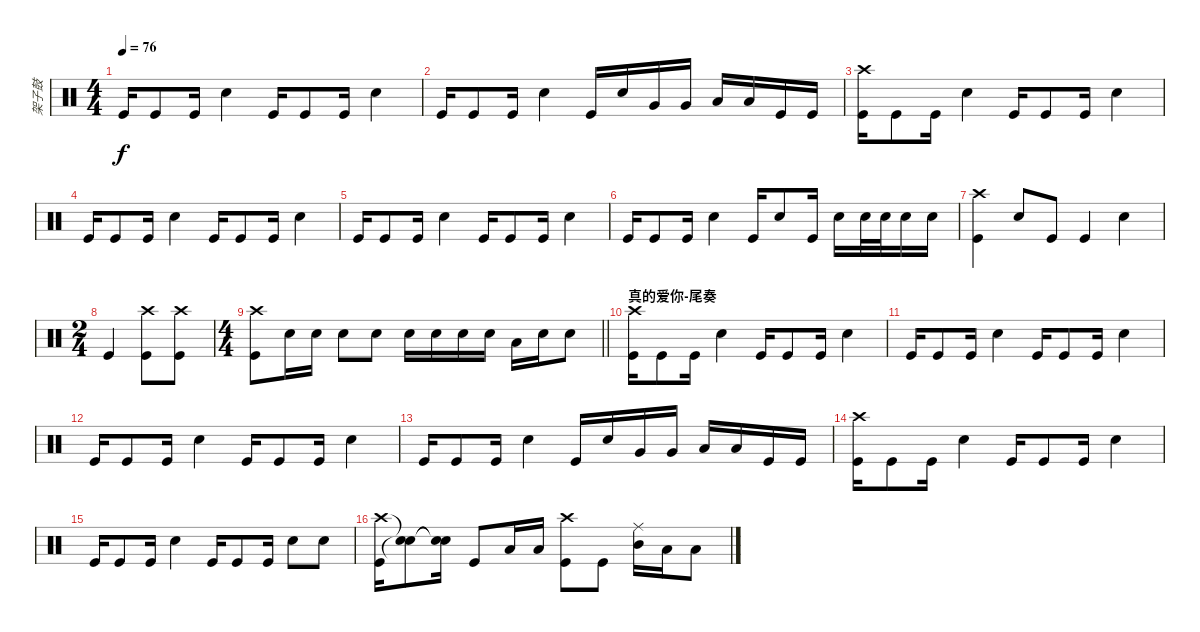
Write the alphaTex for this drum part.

\track ("架子鼓" "架子鼓") {instrument percussion}
\staff {score}
\articulation defaults
\ts (4 4)
\tempo 76
\clef neutral
\ks c "Kick (hit)".16{dy f} "Kick (hit)".8 "Kick (hit)".16 "Electric Snare (hit)".4 "Kick (hit)".16 "Kick (hit)".8 "Kick (hit)".16 "Electric Snare (hit)".4
|
"Kick (hit)".16 "Kick (hit)".8 "Kick (hit)".16 "Electric Snare (hit)".4 "Kick (hit)".16 "Electric Snare (hit)".16 "Very Low Tom (hit)".16 "Very Low Tom (hit)".16 "Low Floor Tom (hit)".16 "Low Floor Tom (hit)".16 "Kick (hit)".16 "Kick (hit)".16 |
("Crash high (hit)" "Kick (hit)").16 "Kick (hit)".8 "Kick (hit)".16 "Electric Snare (hit)".4 "Kick (hit)".16 "Kick (hit)".8 "Kick (hit)".16 "Electric Snare (hit)".4 |
"Kick (hit)".16 "Kick (hit)".8 "Kick (hit)".16 "Electric Snare (hit)".4 "Kick (hit)".16 "Kick (hit)".8 "Kick (hit)".16 "Electric Snare (hit)".4 |
"Kick (hit)".16 "Kick (hit)".8 "Kick (hit)".16 "Electric Snare (hit)".4 "Kick (hit)".16 "Kick (hit)".8 "Kick (hit)".16 "Electric Snare (hit)".4 |
"Kick (hit)".16 "Kick (hit)".8 "Kick (hit)".16 "Electric Snare (hit)".4 "Kick (hit)".16 "Electric Snare (hit)".8 "Kick (hit)".16 "Electric Snare (hit)".16 "Electric Snare (hit)".32 "Electric Snare (hit)".32 "Electric Snare (hit)".16 "Electric Snare (hit)".16 |
("Crash high (hit)" "Kick (hit)").4 "Electric Snare (hit)".8 "Kick (hit)".8 "Kick (hit)".4 "Electric Snare (hit)".4 |
\ts (2 4)
"Kick (hit)".4 ("Crash high (hit)" "Kick (hit)").8 ("Crash high (hit)" "Kick (hit)").8 |
\ts (4 4)
\barLineRight lightlight
("Crash high (hit)" "Kick (hit)").8 "Electric Snare (hit)".16 "Electric Snare (hit)".16 "Electric Snare (hit)".8 "Electric Snare (hit)".8 "Electric Snare (hit)".16 "Electric Snare (hit)".16 "Electric Snare (hit)".16 "Electric Snare (hit)".16 "Low Floor Tom (hit)".16 "Electric Snare (hit)".16 "Electric Snare (hit)".8 |
\section ("" "真的爱你-尾奏")
("Crash high (hit)" "Kick (hit)").16 "Kick (hit)".8 "Kick (hit)".16 "Electric Snare (hit)".4 "Kick (hit)".16 "Kick (hit)".8 "Kick (hit)".16 "Electric Snare (hit)".4 |
"Kick (hit)".16 "Kick (hit)".8 "Kick (hit)".16 "Electric Snare (hit)".4 "Kick (hit)".16 "Kick (hit)".8 "Kick (hit)".16 "Electric Snare (hit)".4 |
"Kick (hit)".16 "Kick (hit)".8 "Kick (hit)".16 "Electric Snare (hit)".4 "Kick (hit)".16 "Kick (hit)".8 "Kick (hit)".16 "Electric Snare (hit)".4 |
"Kick (hit)".16 "Kick (hit)".8 "Kick (hit)".16 "Electric Snare (hit)".4 "Kick (hit)".16 "Electric Snare (hit)".16 "Very Low Tom (hit)".16 "Very Low Tom (hit)".16 "Low Floor Tom (hit)".16 "Low Floor Tom (hit)".16 "Kick (hit)".16 "Kick (hit)".16 |
("Crash high (hit)" "Kick (hit)").16 "Kick (hit)".8 "Kick (hit)".16 "Electric Snare (hit)".4 "Kick (hit)".16 "Kick (hit)".8 "Kick (hit)".16 "Electric Snare (hit)".4 |
"Kick (hit)".16 "Kick (hit)".8 "Kick (hit)".16 "Electric Snare (hit)".4 "Kick (hit)".16 "Kick (hit)".8 "Kick (hit)".16 "Electric Snare (hit)".8 "Electric Snare (hit)".8 |
("Crash high (hit)" "Kick (hit)").16 ("Snare (hit)"{t} "Snare (hit)"{t}).8 ("Snare (hit)"{t} "Snare (hit)"{t}).16 "Kick (hit)".8 "Low Tom (hit)".16 "Low Tom (hit)".16 ("Crash high (hit)" "Kick (hit)").8 "Kick (hit)".8 ("Ride (middle)" "Mid Tom (hit)").16 "Low Tom (hit)".16 "Low Floor Tom (hit)".8
